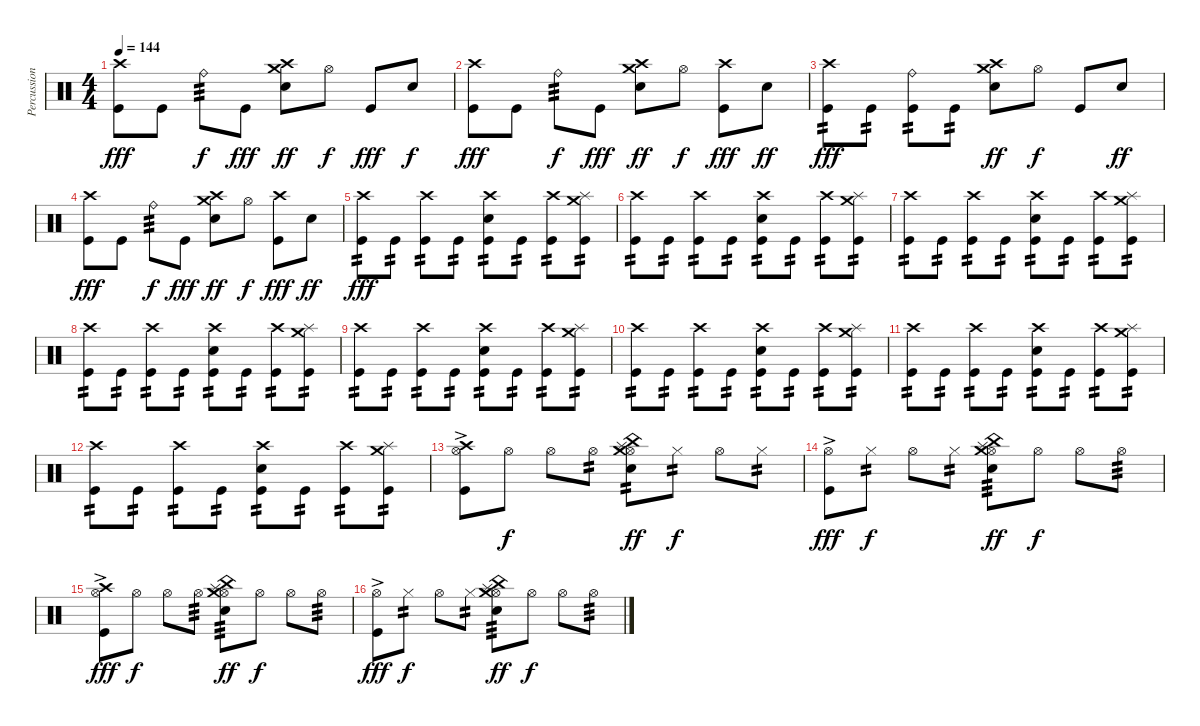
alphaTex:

\track ("Percussion" "Percussion") {instrument percussion}
\staff {score}
\articulation defaults
\ts (4 4)
\tempo 144
\clef neutral
\ks c
("Crash high (hit)" "Kick (hit)").8{dy fff} "Kick (hit)".8 "Ride (bell)".8{tp 3 dy f} "Kick (hit)".8{dy fff} ("Crash medium (hit)" "Crash high (hit)" "Electric Snare (hit)").8{dy ff} "Hi-Hat (open)".8{dy f} "Kick (hit)".8{dy fff} "Electric Snare (hit)".8{dy f} |
("Crash high (hit)" "Kick (hit)").8{dy fff} "Kick (hit)".8 "Ride (bell)".8{tp 3 dy f} "Kick (hit)".8{dy fff} ("Crash medium (hit)" "Crash high (hit)" "Electric Snare (hit)").8{dy ff} "Hi-Hat (open)".8{dy f} ("Crash high (hit)" "Kick (hit)").8{dy fff} "Electric Snare (hit)".8{dy ff} |
("Crash high (hit)" "Kick (hit)").8{tp 2 dy fff} "Kick (hit)".8{tp 2} ("Ride (bell)" "Kick (hit)").8{tp 2} "Kick (hit)".8{tp 2} ("Crash medium (hit)" "Crash high (hit)" "Electric Snare (hit)").8{dy ff} "Hi-Hat (open)".8{dy f} "Kick (hit)".8 "Electric Snare (hit)".8{dy ff} |
("Crash high (hit)" "Kick (hit)").8{dy fff} "Kick (hit)".8 "Ride (bell)".8{tp 3 dy f} "Kick (hit)".8{dy fff} ("Crash medium (hit)" "Crash high (hit)" "Electric Snare (hit)").8{dy ff} "Hi-Hat (open)".8{dy f} ("Crash high (hit)" "Kick (hit)").8{dy fff} "Electric Snare (hit)".8{dy ff} |
("Crash high (hit)" "Kick (hit)").8{tp 2 dy fff} "Kick (hit)".8{tp 2} ("Crash high (hit)" "Kick (hit)").8{tp 2} "Kick (hit)".8{tp 2} ("Crash high (hit)" "Electric Snare (hit)" "Kick (hit)").8{tp 2} "Kick (hit)".8{tp 2} ("Crash high (hit)" "Kick (hit)").8{tp 2} ("Splash (hit)" "Crash medium (hit)" "Kick (hit)").8{tp 2} |
("Crash high (hit)" "Kick (hit)").8{tp 2} "Kick (hit)".8{tp 2} ("Crash high (hit)" "Kick (hit)").8{tp 2} "Kick (hit)".8{tp 2} ("Crash high (hit)" "Electric Snare (hit)" "Kick (hit)").8{tp 2} "Kick (hit)".8{tp 2} ("Crash high (hit)" "Kick (hit)").8{tp 2} ("Splash (hit)" "Crash medium (hit)" "Kick (hit)").8{tp 2} |
("Crash high (hit)" "Kick (hit)").8{tp 2} "Kick (hit)".8{tp 2} ("Crash high (hit)" "Kick (hit)").8{tp 2} "Kick (hit)".8{tp 2} ("Crash high (hit)" "Electric Snare (hit)" "Kick (hit)").8{tp 2} "Kick (hit)".8{tp 2} ("Crash high (hit)" "Kick (hit)").8{tp 2} ("Splash (hit)" "Crash medium (hit)" "Kick (hit)").8{tp 2} |
("Crash high (hit)" "Kick (hit)").8{tp 2} "Kick (hit)".8{tp 2} ("Crash high (hit)" "Kick (hit)").8{tp 2} "Kick (hit)".8{tp 2} ("Crash high (hit)" "Electric Snare (hit)" "Kick (hit)").8{tp 2} "Kick (hit)".8{tp 2} ("Crash high (hit)" "Kick (hit)").8{tp 2} ("Splash (hit)" "Crash medium (hit)" "Kick (hit)").8{tp 2} |
("Crash high (hit)" "Kick (hit)").8{tp 2} "Kick (hit)".8{tp 2} ("Crash high (hit)" "Kick (hit)").8{tp 2} "Kick (hit)".8{tp 2} ("Crash high (hit)" "Electric Snare (hit)" "Kick (hit)").8{tp 2} "Kick (hit)".8{tp 2} ("Crash high (hit)" "Kick (hit)").8{tp 2} ("Splash (hit)" "Crash medium (hit)" "Kick (hit)").8{tp 2} |
("Crash high (hit)" "Kick (hit)").8{tp 2} "Kick (hit)".8{tp 2} ("Crash high (hit)" "Kick (hit)").8{tp 2} "Kick (hit)".8{tp 2} ("Crash high (hit)" "Electric Snare (hit)" "Kick (hit)").8{tp 2} "Kick (hit)".8{tp 2} ("Crash high (hit)" "Kick (hit)").8{tp 2} ("Splash (hit)" "Crash medium (hit)" "Kick (hit)").8{tp 2} |
("Crash high (hit)" "Kick (hit)").8{tp 2} "Kick (hit)".8{tp 2} ("Crash high (hit)" "Kick (hit)").8{tp 2} "Kick (hit)".8{tp 2} ("Crash high (hit)" "Electric Snare (hit)" "Kick (hit)").8{tp 2} "Kick (hit)".8{tp 2} ("Crash high (hit)" "Kick (hit)").8{tp 2} ("Splash (hit)" "Crash medium (hit)" "Kick (hit)").8{tp 2} |
("Crash high (hit)" "Kick (hit)").8{tp 2} "Kick (hit)".8{tp 2} ("Crash high (hit)" "Kick (hit)").8{tp 2} "Kick (hit)".8{tp 2} ("Crash high (hit)" "Electric Snare (hit)" "Kick (hit)").8{tp 2} "Kick (hit)".8{tp 2} ("Crash high (hit)" "Kick (hit)").8{tp 2} ("Splash (hit)" "Crash medium (hit)" "Kick (hit)").8{tp 2} |
("Hi-Hat (open)" "Crash high (hit)" "Kick (hit)"{ac}).8 "Hi-Hat (open)".8{dy f} "Hi-Hat (open)".8 "Hi-Hat (open)".8{tp 2} ("Hi-Hat (open)" "Electric Snare (hit)" "Splash (hit)" "China (hit)" "Crash medium (hit)").8{tp 2 dy ff} "Hi-Hat (closed)".8{tp 2 dy f} "Hi-Hat (open)".8 "Hi-Hat (closed)".8{tp 2} |
("Hi-Hat (open)" "Kick (hit)"{ac}).8{dy fff} "Hi-Hat (closed)".8{tp 2 dy f} "Hi-Hat (open)".8 "Hi-Hat (closed)".8{tp 2} ("Hi-Hat (open)" "Electric Snare (hit)" "Splash (hit)" "China (hit)" "Crash medium (hit)").8{tp 3 dy ff} "Hi-Hat (open)".8{dy f} "Hi-Hat (open)".8 "Hi-Hat (open)".8{tp 3} |
("Hi-Hat (open)" "Crash high (hit)" "Kick (hit)"{ac}).8{dy fff} "Hi-Hat (open)".8{dy f} "Hi-Hat (open)".8 "Hi-Hat (open)".8{tp 3} ("Hi-Hat (open)" "Electric Snare (hit)" "Splash (hit)" "China (hit)" "Crash medium (hit)").8{tp 3 dy ff} "Hi-Hat (open)".8{dy f} "Hi-Hat (open)".8 "Hi-Hat (open)".8{tp 3} |
("Hi-Hat (open)" "Kick (hit)"{ac}).8{dy fff} "Hi-Hat (closed)".8{tp 2 dy f} "Hi-Hat (open)".8 "Hi-Hat (closed)".8{tp 2} ("Hi-Hat (open)" "Electric Snare (hit)" "Splash (hit)" "China (hit)" "Crash medium (hit)").8{tp 3 dy ff} "Hi-Hat (open)".8{dy f} "Hi-Hat (open)".8 "Hi-Hat (open)".8{tp 3}
